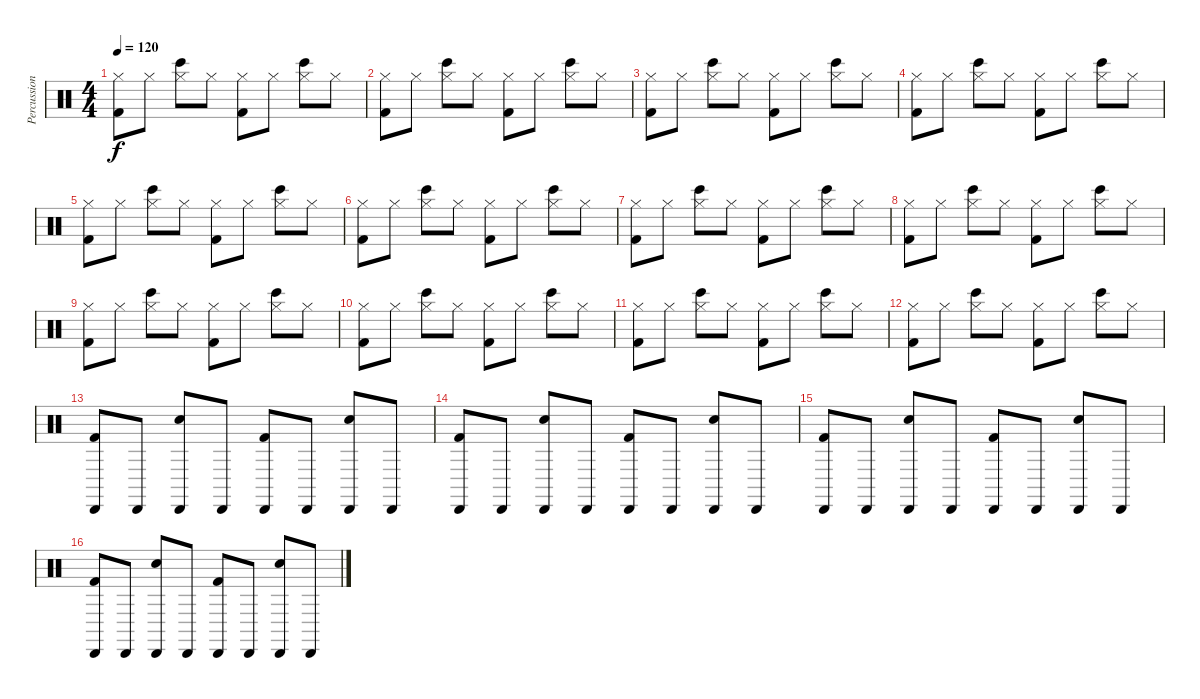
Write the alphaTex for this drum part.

\track ("Percussions" "Percussion") {instrument percussion}
\staff {score}
\articulation defaults
\ts (4 4)
\tempo 120
\clef neutral
\ks c
("Hi-Hat (closed)" "Kick (hit) 2").8{dy f} "Hi-Hat (closed)".8 ("Hi-Hat (closed)" "Bongo High (hit)").8 "Hi-Hat (closed)".8 ("Hi-Hat (closed)" "Kick (hit) 2").8 "Hi-Hat (closed)".8 ("Hi-Hat (closed)" "Bongo High (hit)").8 "Hi-Hat (closed)".8 |
("Hi-Hat (closed)" "Kick (hit) 2").8 "Hi-Hat (closed)".8 ("Hi-Hat (closed)" "Bongo High (hit)").8 "Hi-Hat (closed)".8 ("Hi-Hat (closed)" "Kick (hit) 2").8 "Hi-Hat (closed)".8 ("Hi-Hat (closed)" "Bongo High (hit)").8 "Hi-Hat (closed)".8 |
("Hi-Hat (closed)" "Kick (hit) 2").8 "Hi-Hat (closed)".8 ("Hi-Hat (closed)" "Bongo High (hit)").8 "Hi-Hat (closed)".8 ("Hi-Hat (closed)" "Kick (hit) 2").8 "Hi-Hat (closed)".8 ("Hi-Hat (closed)" "Bongo High (hit)").8 "Hi-Hat (closed)".8 |
("Hi-Hat (closed)" "Kick (hit) 2").8 "Hi-Hat (closed)".8 ("Hi-Hat (closed)" "Bongo High (hit)").8 "Hi-Hat (closed)".8 ("Hi-Hat (closed)" "Kick (hit) 2").8 "Hi-Hat (closed)".8 ("Hi-Hat (closed)" "Bongo High (hit)").8 "Hi-Hat (closed)".8 |
("Hi-Hat (closed)" "Kick (hit) 2").8 "Hi-Hat (closed)".8 ("Hi-Hat (closed)" "Bongo High (hit)").8 "Hi-Hat (closed)".8 ("Hi-Hat (closed)" "Kick (hit) 2").8 "Hi-Hat (closed)".8 ("Hi-Hat (closed)" "Bongo High (hit)").8 "Hi-Hat (closed)".8 |
("Hi-Hat (closed)" "Kick (hit) 2").8 "Hi-Hat (closed)".8 ("Hi-Hat (closed)" "Bongo High (hit)").8 "Hi-Hat (closed)".8 ("Hi-Hat (closed)" "Kick (hit) 2").8 "Hi-Hat (closed)".8 ("Hi-Hat (closed)" "Bongo High (hit)").8 "Hi-Hat (closed)".8 |
("Hi-Hat (closed)" "Kick (hit) 2").8 "Hi-Hat (closed)".8 ("Hi-Hat (closed)" "Bongo High (hit)").8 "Hi-Hat (closed)".8 ("Hi-Hat (closed)" "Kick (hit) 2").8 "Hi-Hat (closed)".8 ("Hi-Hat (closed)" "Bongo High (hit)").8 "Hi-Hat (closed)".8 |
("Hi-Hat (closed)" "Kick (hit) 2").8 "Hi-Hat (closed)".8 ("Hi-Hat (closed)" "Bongo High (hit)").8 "Hi-Hat (closed)".8 ("Hi-Hat (closed)" "Kick (hit) 2").8 "Hi-Hat (closed)".8 ("Hi-Hat (closed)" "Bongo High (hit)").8 "Hi-Hat (closed)".8 |
("Hi-Hat (closed)" "Kick (hit) 2").8 "Hi-Hat (closed)".8 ("Hi-Hat (closed)" "Bongo High (hit)").8 "Hi-Hat (closed)".8 ("Hi-Hat (closed)" "Kick (hit) 2").8 "Hi-Hat (closed)".8 ("Hi-Hat (closed)" "Bongo High (hit)").8 "Hi-Hat (closed)".8 |
("Hi-Hat (closed)" "Kick (hit) 2").8 "Hi-Hat (closed)".8 ("Hi-Hat (closed)" "Bongo High (hit)").8 "Hi-Hat (closed)".8 ("Hi-Hat (closed)" "Kick (hit) 2").8 "Hi-Hat (closed)".8 ("Hi-Hat (closed)" "Bongo High (hit)").8 "Hi-Hat (closed)".8 |
("Hi-Hat (closed)" "Kick (hit) 2").8 "Hi-Hat (closed)".8 ("Hi-Hat (closed)" "Bongo High (hit)").8 "Hi-Hat (closed)".8 ("Hi-Hat (closed)" "Kick (hit) 2").8 "Hi-Hat (closed)".8 ("Hi-Hat (closed)" "Bongo High (hit)").8 "Hi-Hat (closed)".8 |
("Hi-Hat (closed)" "Kick (hit) 2").8 "Hi-Hat (closed)".8 ("Hi-Hat (closed)" "Bongo High (hit)").8 "Hi-Hat (closed)".8 ("Hi-Hat (closed)" "Kick (hit) 2").8 "Hi-Hat (closed)".8 ("Hi-Hat (closed)" "Bongo High (hit)").8 "Hi-Hat (closed)".8 |
("Cabasa (hit)" "Kick (hit) 2").8 "Cabasa (hit)".8 ("Cabasa (hit)" "Electric Snare (hit)").8 "Cabasa (hit)".8 ("Cabasa (hit)" "Kick (hit) 2").8 "Cabasa (hit)".8 ("Cabasa (hit)" "Electric Snare (hit)").8 "Cabasa (hit)".8 |
("Cabasa (hit)" "Kick (hit) 2").8 "Cabasa (hit)".8 ("Cabasa (hit)" "Electric Snare (hit)").8 "Cabasa (hit)".8 ("Cabasa (hit)" "Kick (hit) 2").8 "Cabasa (hit)".8 ("Cabasa (hit)" "Electric Snare (hit)").8 "Cabasa (hit)".8 |
("Cabasa (hit)" "Kick (hit) 2").8 "Cabasa (hit)".8 ("Cabasa (hit)" "Electric Snare (hit)").8 "Cabasa (hit)".8 ("Cabasa (hit)" "Kick (hit) 2").8 "Cabasa (hit)".8 ("Cabasa (hit)" "Electric Snare (hit)").8 "Cabasa (hit)".8 |
("Cabasa (hit)" "Kick (hit) 2").8 "Cabasa (hit)".8 ("Cabasa (hit)" "Electric Snare (hit)").8 "Cabasa (hit)".8 ("Cabasa (hit)" "Kick (hit) 2").8 "Cabasa (hit)".8 ("Cabasa (hit)" "Electric Snare (hit)").8 "Cabasa (hit)".8
